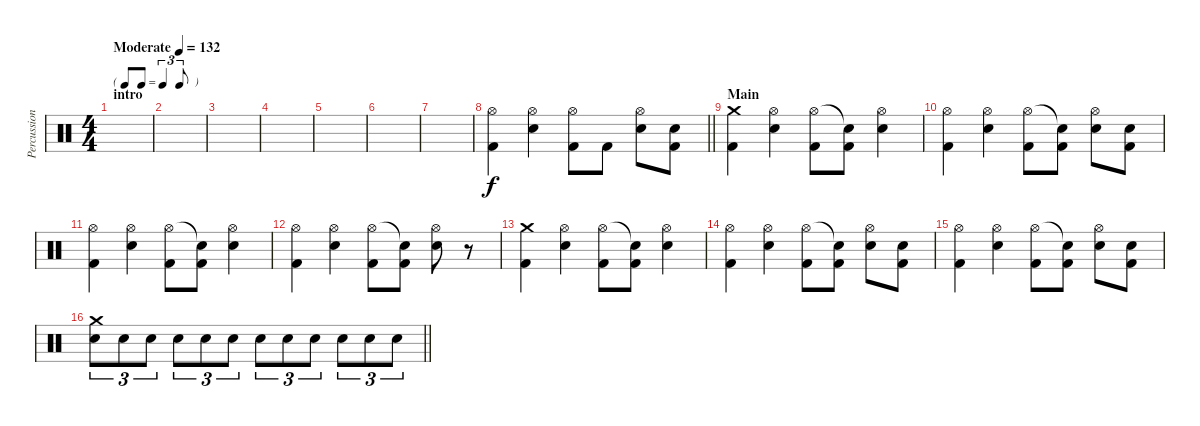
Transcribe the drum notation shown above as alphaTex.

\track ("Percussion" "Percussion") {instrument percussion}
\staff {score}
\articulation defaults
\ts (4 4)
\tf triplet8th
\section ("" "intro")
\tempo (132 "Moderate")
\clef neutral
\ks c
|
|
|
|
|
|
|
\barLineRight lightlight
("Hi-Hat (open)" "Kick (hit) 2").4 ("Hi-Hat (open)" "Electric Snare (hit)").4 ("Hi-Hat (open)" "Kick (hit) 2").8 "Kick (hit) 2".8 ("Hi-Hat (open)" "Electric Snare (hit)").8 ("Electric Snare (hit)" "Kick (hit) 2").8 |
\section ("" "Main")
("Crash medium (hit)" "Kick (hit) 2").4 ("Hi-Hat (open)" "Electric Snare (hit)").4 ("Hi-Hat (open)" "Kick (hit) 2").8 ("Snare (hit)"{t} "Kick (hit) 2").8 ("Hi-Hat (open)" "Electric Snare (hit)").4 |
("Hi-Hat (open)" "Kick (hit) 2").4 ("Hi-Hat (open)" "Electric Snare (hit)").4 ("Hi-Hat (open)" "Kick (hit) 2").8 ("Snare (hit)"{t} "Kick (hit) 2").8 ("Hi-Hat (open)" "Electric Snare (hit)").8 ("Electric Snare (hit)" "Kick (hit) 2").8 |
("Hi-Hat (open)" "Kick (hit) 2").4 ("Hi-Hat (open)" "Electric Snare (hit)").4 ("Hi-Hat (open)" "Kick (hit) 2").8 ("Snare (hit)"{t} "Kick (hit) 2").8 ("Hi-Hat (open)" "Electric Snare (hit)").4 |
("Hi-Hat (open)" "Kick (hit) 2").4 ("Hi-Hat (open)" "Electric Snare (hit)").4 ("Hi-Hat (open)" "Kick (hit) 2").8 ("Snare (hit)"{t} "Kick (hit) 2").8 ("Hi-Hat (open)" "Electric Snare (hit)").8 r.8 |
("Crash medium (hit)" "Kick (hit) 2").4 ("Hi-Hat (open)" "Electric Snare (hit)").4 ("Hi-Hat (open)" "Kick (hit) 2").8 ("Snare (hit)"{t} "Kick (hit) 2").8 ("Hi-Hat (open)" "Electric Snare (hit)").4 |
("Hi-Hat (open)" "Kick (hit) 2").4 ("Hi-Hat (open)" "Electric Snare (hit)").4 ("Hi-Hat (open)" "Kick (hit) 2").8 ("Snare (hit)"{t} "Kick (hit) 2").8 ("Hi-Hat (open)" "Electric Snare (hit)").8 ("Electric Snare (hit)" "Kick (hit) 2").8 |
("Hi-Hat (open)" "Kick (hit) 2").4 ("Hi-Hat (open)" "Electric Snare (hit)").4 ("Hi-Hat (open)" "Kick (hit) 2").8 ("Snare (hit)"{t} "Kick (hit) 2").8 ("Hi-Hat (open)" "Electric Snare (hit)").8 ("Electric Snare (hit)" "Kick (hit) 2").8 |
\barLineRight lightlight
("Crash medium (hit)" "Electric Snare (hit)").8{tu (3 2)} "Electric Snare (hit)".8{tu (3 2)} "Electric Snare (hit)".8{tu (3 2)} "Electric Snare (hit)".8{tu (3 2)} "Electric Snare (hit)".8{tu (3 2)} "Electric Snare (hit)".8{tu (3 2)} "Electric Snare (hit)".8{tu (3 2)} "Electric Snare (hit)".8{tu (3 2)} "Electric Snare (hit)".8{tu (3 2)} "Electric Snare (hit)".8{tu (3 2)} "Electric Snare (hit)".8{tu (3 2)} "Electric Snare (hit)".8{tu (3 2)}
